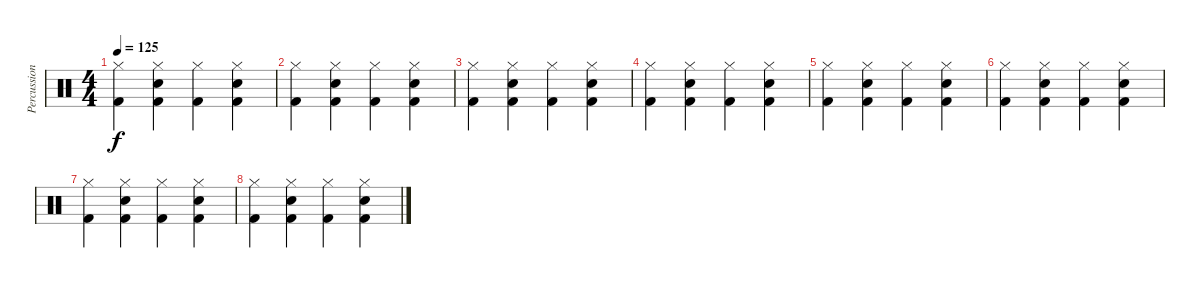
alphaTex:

\track ("Percussion" "Percussion") {instrument percussion}
\staff {score}
\articulation defaults
\ts (4 4)
\tempo 125
\clef neutral
\ks c
("Hi-Hat (closed)" "Kick (hit) 2").4{dy f} ("Hi-Hat (closed)" "Hand Clap (hit)" "Kick (hit) 2").4 ("Hi-Hat (closed)" "Kick (hit) 2").4 ("Hi-Hat (closed)" "Hand Clap (hit)" "Kick (hit) 2").4 |
("Hi-Hat (closed)" "Kick (hit) 2").4 ("Hi-Hat (closed)" "Hand Clap (hit)" "Kick (hit) 2").4 ("Hi-Hat (closed)" "Kick (hit) 2").4 ("Hi-Hat (closed)" "Hand Clap (hit)" "Kick (hit) 2").4 |
("Hi-Hat (closed)" "Kick (hit) 2").4 ("Hi-Hat (closed)" "Hand Clap (hit)" "Kick (hit) 2").4 ("Hi-Hat (closed)" "Kick (hit) 2").4 ("Hi-Hat (closed)" "Hand Clap (hit)" "Kick (hit) 2").4 |
("Hi-Hat (closed)" "Kick (hit) 2").4 ("Hi-Hat (closed)" "Hand Clap (hit)" "Kick (hit) 2").4 ("Hi-Hat (closed)" "Kick (hit) 2").4 ("Hi-Hat (closed)" "Hand Clap (hit)" "Kick (hit) 2").4 |
("Hi-Hat (closed)" "Kick (hit) 2").4 ("Hi-Hat (closed)" "Hand Clap (hit)" "Kick (hit) 2").4 ("Hi-Hat (closed)" "Kick (hit) 2").4 ("Hi-Hat (closed)" "Hand Clap (hit)" "Kick (hit) 2").4 |
("Hi-Hat (closed)" "Kick (hit) 2").4 ("Hi-Hat (closed)" "Hand Clap (hit)" "Kick (hit) 2").4 ("Hi-Hat (closed)" "Kick (hit) 2").4 ("Hi-Hat (closed)" "Hand Clap (hit)" "Kick (hit) 2").4 |
("Hi-Hat (closed)" "Kick (hit) 2").4 ("Hi-Hat (closed)" "Hand Clap (hit)" "Kick (hit) 2").4 ("Hi-Hat (closed)" "Kick (hit) 2").4 ("Hi-Hat (closed)" "Hand Clap (hit)" "Kick (hit) 2").4 |
("Hi-Hat (closed)" "Kick (hit) 2").4 ("Hi-Hat (closed)" "Hand Clap (hit)" "Kick (hit) 2").4 ("Hi-Hat (closed)" "Kick (hit) 2").4 ("Hi-Hat (closed)" "Hand Clap (hit)" "Kick (hit) 2").4
